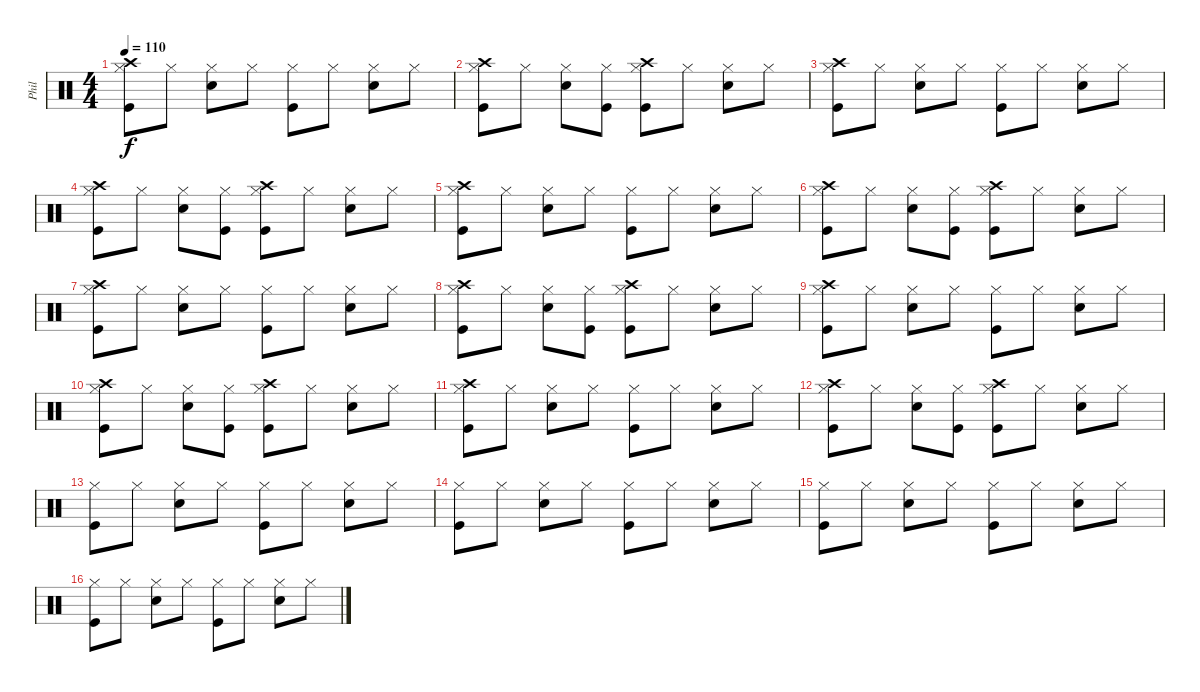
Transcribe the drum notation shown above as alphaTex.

\track ("Phil" "Phil") {instrument percussion}
\staff {score}
\articulation defaults
\ts (4 4)
\tempo 110
\clef neutral
\ks c
("Hi-Hat (closed)" "Crash high (hit)" "Kick (hit)").8{dy f} "Hi-Hat (closed)".8 ("Hi-Hat (closed)" "Snare (hit) 2").8 "Hi-Hat (closed)".8 ("Hi-Hat (closed)" "Kick (hit)").8 "Hi-Hat (closed)".8 ("Hi-Hat (closed)" "Snare (hit) 2").8 "Hi-Hat (closed)".8 |
("Hi-Hat (closed)" "Crash high (hit)" "Kick (hit)").8 "Hi-Hat (closed)".8 ("Hi-Hat (closed)" "Snare (hit) 2").8 ("Hi-Hat (closed)" "Kick (hit)").8 ("Hi-Hat (closed)" "Crash high (hit)" "Kick (hit)").8 "Hi-Hat (closed)".8 ("Hi-Hat (closed)" "Snare (hit) 2").8 "Hi-Hat (closed)".8 |
("Hi-Hat (closed)" "Crash high (hit)" "Kick (hit)").8 "Hi-Hat (closed)".8 ("Hi-Hat (closed)" "Snare (hit) 2").8 "Hi-Hat (closed)".8 ("Hi-Hat (closed)" "Kick (hit)").8 "Hi-Hat (closed)".8 ("Hi-Hat (closed)" "Snare (hit) 2").8 "Hi-Hat (closed)".8 |
("Hi-Hat (closed)" "Crash high (hit)" "Kick (hit)").8 "Hi-Hat (closed)".8 ("Hi-Hat (closed)" "Snare (hit) 2").8 ("Hi-Hat (closed)" "Kick (hit)").8 ("Hi-Hat (closed)" "Crash high (hit)" "Kick (hit)").8 "Hi-Hat (closed)".8 ("Hi-Hat (closed)" "Snare (hit) 2").8 "Hi-Hat (closed)".8 |
("Hi-Hat (closed)" "Crash high (hit)" "Kick (hit)").8 "Hi-Hat (closed)".8 ("Hi-Hat (closed)" "Snare (hit) 2").8 "Hi-Hat (closed)".8 ("Hi-Hat (closed)" "Kick (hit)").8 "Hi-Hat (closed)".8 ("Hi-Hat (closed)" "Snare (hit) 2").8 "Hi-Hat (closed)".8 |
("Hi-Hat (closed)" "Crash high (hit)" "Kick (hit)").8 "Hi-Hat (closed)".8 ("Hi-Hat (closed)" "Snare (hit) 2").8 ("Hi-Hat (closed)" "Kick (hit)").8 ("Hi-Hat (closed)" "Crash high (hit)" "Kick (hit)").8 "Hi-Hat (closed)".8 ("Hi-Hat (closed)" "Snare (hit) 2").8 "Hi-Hat (closed)".8 |
("Hi-Hat (closed)" "Crash high (hit)" "Kick (hit)").8 "Hi-Hat (closed)".8 ("Hi-Hat (closed)" "Snare (hit) 2").8 "Hi-Hat (closed)".8 ("Hi-Hat (closed)" "Kick (hit)").8 "Hi-Hat (closed)".8 ("Hi-Hat (closed)" "Snare (hit) 2").8 "Hi-Hat (closed)".8 |
("Hi-Hat (closed)" "Crash high (hit)" "Kick (hit)").8 "Hi-Hat (closed)".8 ("Hi-Hat (closed)" "Snare (hit) 2").8 ("Hi-Hat (closed)" "Kick (hit)").8 ("Hi-Hat (closed)" "Crash high (hit)" "Kick (hit)").8 "Hi-Hat (closed)".8 ("Hi-Hat (closed)" "Snare (hit) 2").8 "Hi-Hat (closed)".8 |
("Hi-Hat (closed)" "Crash high (hit)" "Kick (hit)").8 "Hi-Hat (closed)".8 ("Hi-Hat (closed)" "Snare (hit) 2").8 "Hi-Hat (closed)".8 ("Hi-Hat (closed)" "Kick (hit)").8 "Hi-Hat (closed)".8 ("Hi-Hat (closed)" "Snare (hit) 2").8 "Hi-Hat (closed)".8 |
("Hi-Hat (closed)" "Crash high (hit)" "Kick (hit)").8 "Hi-Hat (closed)".8 ("Hi-Hat (closed)" "Snare (hit) 2").8 ("Hi-Hat (closed)" "Kick (hit)").8 ("Hi-Hat (closed)" "Crash high (hit)" "Kick (hit)").8 "Hi-Hat (closed)".8 ("Hi-Hat (closed)" "Snare (hit) 2").8 "Hi-Hat (closed)".8 |
("Hi-Hat (closed)" "Crash high (hit)" "Kick (hit)").8 "Hi-Hat (closed)".8 ("Hi-Hat (closed)" "Snare (hit) 2").8 "Hi-Hat (closed)".8 ("Hi-Hat (closed)" "Kick (hit)").8 "Hi-Hat (closed)".8 ("Hi-Hat (closed)" "Snare (hit) 2").8 "Hi-Hat (closed)".8 |
("Hi-Hat (closed)" "Crash high (hit)" "Kick (hit)").8 "Hi-Hat (closed)".8 ("Hi-Hat (closed)" "Snare (hit) 2").8 ("Hi-Hat (closed)" "Kick (hit)").8 ("Hi-Hat (closed)" "Crash high (hit)" "Kick (hit)").8 "Hi-Hat (closed)".8 ("Hi-Hat (closed)" "Snare (hit) 2").8 "Hi-Hat (closed)".8 |
("Hi-Hat (closed)" "Kick (hit)").8 "Hi-Hat (closed)".8 ("Hi-Hat (closed)" "Snare (hit) 2").8 "Hi-Hat (closed)".8 ("Hi-Hat (closed)" "Kick (hit)").8 "Hi-Hat (closed)".8 ("Hi-Hat (closed)" "Snare (hit) 2").8 "Hi-Hat (closed)".8 |
("Hi-Hat (closed)" "Kick (hit)").8 "Hi-Hat (closed)".8 ("Hi-Hat (closed)" "Snare (hit) 2").8 "Hi-Hat (closed)".8 ("Hi-Hat (closed)" "Kick (hit)").8 "Hi-Hat (closed)".8 ("Hi-Hat (closed)" "Snare (hit) 2").8 "Hi-Hat (closed)".8 |
("Hi-Hat (closed)" "Kick (hit)").8 "Hi-Hat (closed)".8 ("Hi-Hat (closed)" "Snare (hit) 2").8 "Hi-Hat (closed)".8 ("Hi-Hat (closed)" "Kick (hit)").8 "Hi-Hat (closed)".8 ("Hi-Hat (closed)" "Snare (hit) 2").8 "Hi-Hat (closed)".8 |
("Hi-Hat (closed)" "Kick (hit)").8 "Hi-Hat (closed)".8 ("Hi-Hat (closed)" "Snare (hit) 2").8 "Hi-Hat (closed)".8 ("Hi-Hat (closed)" "Kick (hit)").8 "Hi-Hat (closed)".8 ("Hi-Hat (closed)" "Snare (hit) 2").8 "Hi-Hat (closed)".8
